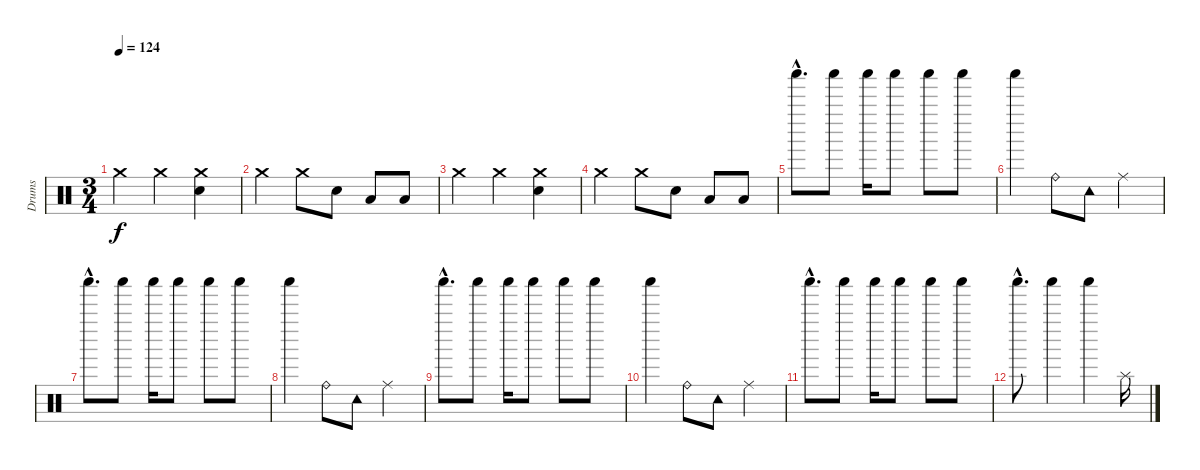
\track ("Drums" "Drums") {instrument percussion}
\staff {score}
\articulation defaults
\ts (3 4)
\tempo 124
\clef neutral
\ks c "Crash medium (hit)".4{dy f} "Crash medium (hit)".4
("Electric Snare (hit)" "Crash medium (hit)").4 |
"Crash medium (hit)".4 "Crash medium (hit)".8 "Electric Snare (hit)".8 "Low Tom (hit)".8 "Low Tom (hit)".8 |
"Crash medium (hit)".4 "Crash medium (hit)".4 ("Electric Snare (hit)" "Crash medium (hit)").4 |
"Crash medium (hit)".4 "Crash medium (hit)".8 "Electric Snare (hit)".8 "Low Tom (hit)".8 "Low Tom (hit)".8 |
"Shaker (hit)"{hac}.8{d volume 4} "Shaker (hit)".8{volume 9} "Shaker (hit)".16 "Shaker (hit)".8 "Shaker (hit)".8 "Shaker (hit)".8 |
"Shaker (hit)".4 "Ride (bell)".8 "Tambourine (hit)".8 "Ride (middle)".4 |
"Shaker (hit)"{hac}.8{d} "Shaker (hit)".8 "Shaker (hit)".16 "Shaker (hit)".8 "Shaker (hit)".8 "Shaker (hit)".8 |
"Shaker (hit)".4 "Ride (bell)".8 "Tambourine (hit)".8 "Ride (middle)".4 |
"Shaker (hit)"{hac}.8{d} "Shaker (hit)".8 "Shaker (hit)".16 "Shaker (hit)".8 "Shaker (hit)".8 "Shaker (hit)".8 |
"Shaker (hit)".4 "Ride (bell)".8 "Tambourine (hit)".8 "Ride (middle)".4 |
"Shaker (hit)"{hac}.8{d} "Shaker (hit)".8 "Shaker (hit)".16 "Shaker (hit)".8 "Shaker (hit)".8 "Shaker (hit)".8 |
"Shaker (hit)"{hac}.8{d} "Shaker (hit)".4 "Shaker (hit)".4 "Splash (hit)".16
